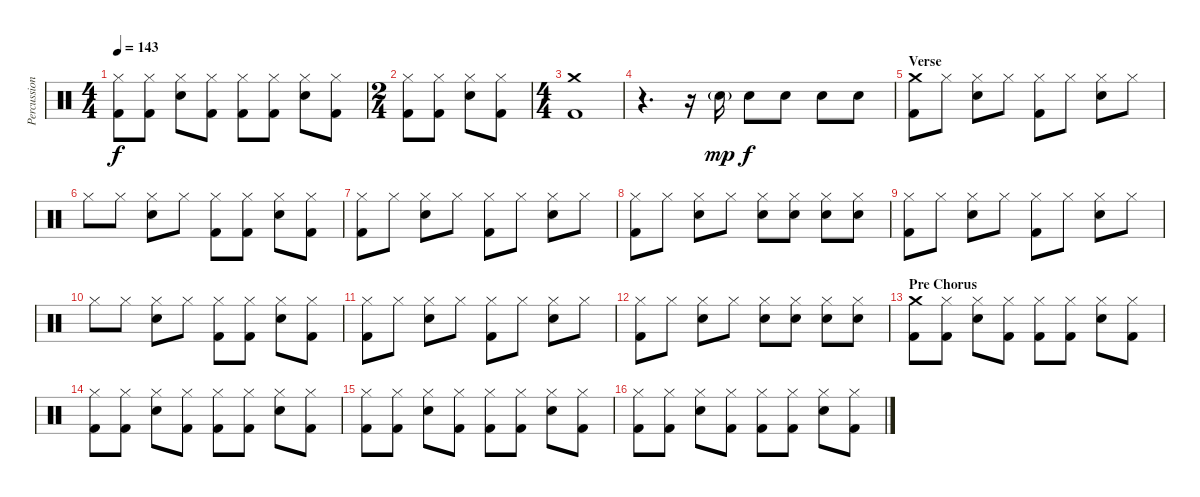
\track ("Percussion" "Percussion") {instrument percussion}
\staff {score}
\articulation defaults
\ts (4 4)
\tempo 143
\clef neutral
\ks c
("Hi-Hat (closed)" "Kick (hit) 2").8{dy f} ("Hi-Hat (closed)" "Kick (hit) 2").8 ("Hi-Hat (closed)" "Electric Snare (hit)").8 ("Hi-Hat (closed)" "Kick (hit) 2").8 ("Hi-Hat (closed)" "Kick (hit) 2").8 ("Hi-Hat (closed)" "Kick (hit) 2").8 ("Hi-Hat (closed)" "Electric Snare (hit)").8 ("Hi-Hat (closed)" "Kick (hit) 2").8 |
\ts (2 4)
("Hi-Hat (closed)" "Kick (hit) 2").8 ("Hi-Hat (closed)" "Kick (hit) 2").8 ("Hi-Hat (closed)" "Electric Snare (hit)").8 ("Hi-Hat (closed)" "Kick (hit) 2").8 |
\ts (4 4)
("Crash medium (hit)" "Kick (hit) 2").1 |
r.4{d} r.16 "Electric Snare (hit)"{g}.16{dy mp} "Electric Snare (hit)".8{dy f} "Electric Snare (hit)".8 "Electric Snare (hit)".8 "Electric Snare (hit)".8 |
\section ("" "Verse")
("Crash medium (hit)" "Kick (hit) 2").8 "Hi-Hat (closed)".8 ("Hi-Hat (closed)" "Electric Snare (hit)").8 "Hi-Hat (closed)".8 ("Hi-Hat (closed)" "Kick (hit) 2").8 "Hi-Hat (closed)".8 ("Hi-Hat (closed)" "Electric Snare (hit)").8 "Hi-Hat (closed)".8 |
"Hi-Hat (closed)".8 "Hi-Hat (closed)".8 ("Hi-Hat (closed)" "Electric Snare (hit)").8 "Hi-Hat (closed)".8 ("Hi-Hat (closed)" "Kick (hit) 2").8 ("Hi-Hat (closed)" "Kick (hit) 2").8 ("Hi-Hat (closed)" "Electric Snare (hit)").8 ("Hi-Hat (closed)" "Kick (hit) 2").8 |
("Hi-Hat (closed)" "Kick (hit) 2").8 "Hi-Hat (closed)".8 ("Hi-Hat (closed)" "Electric Snare (hit)").8 "Hi-Hat (closed)".8 ("Hi-Hat (closed)" "Kick (hit) 2").8 "Hi-Hat (closed)".8 ("Hi-Hat (closed)" "Electric Snare (hit)").8 "Hi-Hat (closed)".8 |
("Hi-Hat (closed)" "Kick (hit) 2").8 "Hi-Hat (closed)".8 ("Hi-Hat (closed)" "Electric Snare (hit)").8 "Hi-Hat (closed)".8 ("Hi-Hat (closed)" "Electric Snare (hit)").8 ("Hi-Hat (closed)" "Electric Snare (hit)").8 ("Hi-Hat (closed)" "Electric Snare (hit)").8 ("Hi-Hat (closed)" "Electric Snare (hit)").8 |
("Hi-Hat (closed)" "Kick (hit) 2").8 "Hi-Hat (closed)".8 ("Hi-Hat (closed)" "Electric Snare (hit)").8 "Hi-Hat (closed)".8 ("Hi-Hat (closed)" "Kick (hit) 2").8 "Hi-Hat (closed)".8 ("Hi-Hat (closed)" "Electric Snare (hit)").8 "Hi-Hat (closed)".8 |
"Hi-Hat (closed)".8 "Hi-Hat (closed)".8 ("Hi-Hat (closed)" "Electric Snare (hit)").8 "Hi-Hat (closed)".8 ("Hi-Hat (closed)" "Kick (hit) 2").8 ("Hi-Hat (closed)" "Kick (hit) 2").8 ("Hi-Hat (closed)" "Electric Snare (hit)").8 ("Hi-Hat (closed)" "Kick (hit) 2").8 |
("Hi-Hat (closed)" "Kick (hit) 2").8 "Hi-Hat (closed)".8 ("Hi-Hat (closed)" "Electric Snare (hit)").8 "Hi-Hat (closed)".8 ("Hi-Hat (closed)" "Kick (hit) 2").8 "Hi-Hat (closed)".8 ("Hi-Hat (closed)" "Electric Snare (hit)").8 "Hi-Hat (closed)".8 |
("Hi-Hat (closed)" "Kick (hit) 2").8 "Hi-Hat (closed)".8 ("Hi-Hat (closed)" "Electric Snare (hit)").8 "Hi-Hat (closed)".8 ("Hi-Hat (closed)" "Electric Snare (hit)").8 ("Hi-Hat (closed)" "Electric Snare (hit)").8 ("Hi-Hat (closed)" "Electric Snare (hit)").8 ("Hi-Hat (closed)" "Electric Snare (hit)").8 |
\section ("" "Pre Chorus")
("Crash medium (hit)" "Kick (hit) 2").8 ("Hi-Hat (closed)" "Kick (hit) 2").8 ("Hi-Hat (closed)" "Electric Snare (hit)").8 ("Hi-Hat (closed)" "Kick (hit) 2").8 ("Hi-Hat (closed)" "Kick (hit) 2").8 ("Hi-Hat (closed)" "Kick (hit) 2").8 ("Hi-Hat (closed)" "Electric Snare (hit)").8 ("Hi-Hat (closed)" "Kick (hit) 2").8 |
("Hi-Hat (closed)" "Kick (hit) 2").8 ("Hi-Hat (closed)" "Kick (hit) 2").8 ("Hi-Hat (closed)" "Electric Snare (hit)").8 ("Hi-Hat (closed)" "Kick (hit) 2").8 ("Hi-Hat (closed)" "Kick (hit) 2").8 ("Hi-Hat (closed)" "Kick (hit) 2").8 ("Hi-Hat (closed)" "Electric Snare (hit)").8 ("Hi-Hat (closed)" "Kick (hit) 2").8 |
("Hi-Hat (closed)" "Kick (hit) 2").8 ("Hi-Hat (closed)" "Kick (hit) 2").8 ("Hi-Hat (closed)" "Electric Snare (hit)").8 ("Hi-Hat (closed)" "Kick (hit) 2").8 ("Hi-Hat (closed)" "Kick (hit) 2").8 ("Hi-Hat (closed)" "Kick (hit) 2").8 ("Hi-Hat (closed)" "Electric Snare (hit)").8 ("Hi-Hat (closed)" "Kick (hit) 2").8 |
("Hi-Hat (closed)" "Kick (hit) 2").8 ("Hi-Hat (closed)" "Kick (hit) 2").8 ("Hi-Hat (closed)" "Electric Snare (hit)").8 ("Hi-Hat (closed)" "Kick (hit) 2").8 ("Hi-Hat (closed)" "Kick (hit) 2").8 ("Hi-Hat (closed)" "Kick (hit) 2").8 ("Hi-Hat (closed)" "Electric Snare (hit)").8 ("Hi-Hat (closed)" "Kick (hit) 2").8
